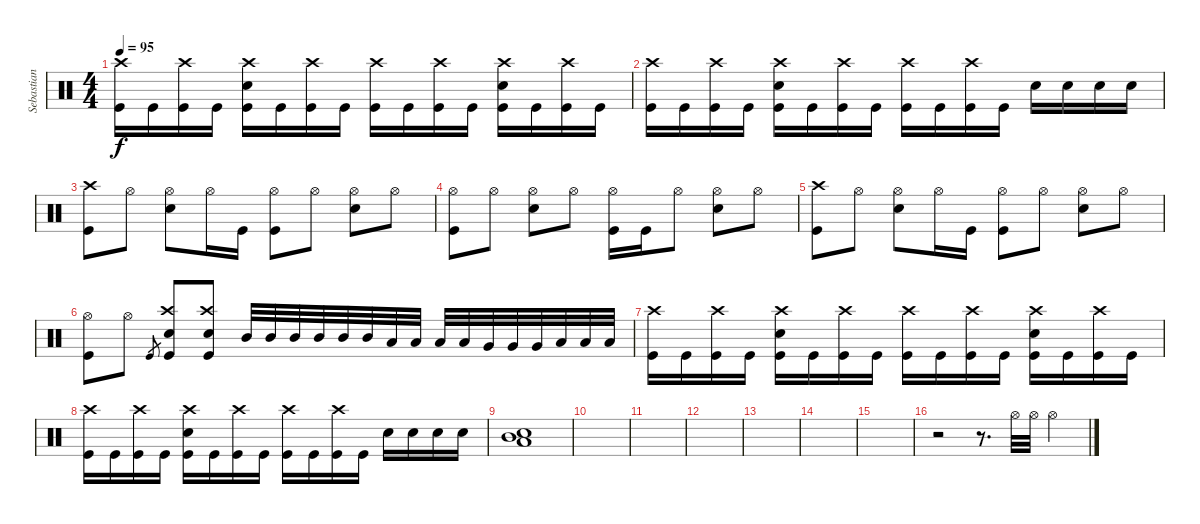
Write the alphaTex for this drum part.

\track ("Sebastian" "Sebastian") {instrument percussion}
\staff {score}
\articulation defaults
\ts (4 4)
\tempo 95
\clef neutral
\ks c
("Kick (hit)" "Crash high (hit)").16{dy f} "Kick (hit)".16 ("Kick (hit)" "Crash high (hit)").16 "Kick (hit)".16 ("Kick (hit)" "Snare (hit) 2" "Crash high (hit)").16 "Kick (hit)".16 ("Kick (hit)" "Crash high (hit)").16 "Kick (hit)".16 ("Kick (hit)" "Crash high (hit)").16 "Kick (hit)".16 ("Kick (hit)" "Crash high (hit)").16 "Kick (hit)".16 ("Kick (hit)" "Snare (hit) 2" "Crash high (hit)").16 "Kick (hit)".16 ("Kick (hit)" "Crash high (hit)").16 "Kick (hit)".16 |
("Kick (hit)" "Crash high (hit)").16 "Kick (hit)".16 ("Kick (hit)" "Crash high (hit)").16 "Kick (hit)".16 ("Kick (hit)" "Snare (hit) 2" "Crash high (hit)").16 "Kick (hit)".16 ("Kick (hit)" "Crash high (hit)").16 "Kick (hit)".16 ("Kick (hit)" "Crash high (hit)").16 "Kick (hit)".16 ("Kick (hit)" "Crash high (hit)").16 "Kick (hit)".16 "Snare (hit) 2".16 "Snare (hit) 2".16 "Snare (hit) 2".16 "Snare (hit) 2".16 |
("Kick (hit)" "Crash high (hit)").8 "Hi-Hat (open)".8 ("Snare (hit) 2" "Hi-Hat (open)").8 "Hi-Hat (open)".16 "Kick (hit)".16 ("Kick (hit)" "Hi-Hat (open)").8 "Hi-Hat (open)".8 ("Snare (hit) 2" "Hi-Hat (open)").8 "Hi-Hat (open)".8 |
("Kick (hit)" "Hi-Hat (open)").8 "Hi-Hat (open)".8 ("Snare (hit) 2" "Hi-Hat (open)").8 "Hi-Hat (open)".8 ("Kick (hit)" "Hi-Hat (open)").16 "Kick (hit)".16 "Hi-Hat (open)".8 ("Snare (hit) 2" "Hi-Hat (open)").8 "Hi-Hat (open)".8 |
("Kick (hit)" "Crash high (hit)").8 "Hi-Hat (open)".8 ("Snare (hit) 2" "Hi-Hat (open)").8 "Hi-Hat (open)".16 "Kick (hit)".16 ("Kick (hit)" "Hi-Hat (open)").8 "Hi-Hat (open)".8 ("Snare (hit) 2" "Hi-Hat (open)").8 "Hi-Hat (open)".8 |
("Kick (hit)" "Hi-Hat (open)").8 "Hi-Hat (open)".8 "Kick (hit)".8{gr} ("Kick (hit)" "Snare (hit) 2" "Crash high (hit)").8 ("Kick (hit)" "Snare (hit) 2" "Crash high (hit)").8 "Mid Tom (hit)".32 "Mid Tom (hit)".32 "Mid Tom (hit)".32 "Mid Tom (hit)".32 "Mid Tom (hit)".32 "Mid Tom (hit)".32 "Low Tom (hit)".32 "Low Tom (hit)".32 "Low Tom (hit)".32 "Low Tom (hit)".32 "Very Low Tom (hit)".32 "Very Low Tom (hit)".32 "Very Low Tom (hit)".32 "Low Floor Tom (hit)".32 "Low Floor Tom (hit)".32 "Low Floor Tom (hit)".32 |
("Kick (hit)" "Crash high (hit)").16 "Kick (hit)".16 ("Kick (hit)" "Crash high (hit)").16 "Kick (hit)".16 ("Kick (hit)" "Snare (hit) 2" "Crash high (hit)").16 "Kick (hit)".16 ("Kick (hit)" "Crash high (hit)").16 "Kick (hit)".16 ("Kick (hit)" "Crash high (hit)").16 "Kick (hit)".16 ("Kick (hit)" "Crash high (hit)").16 "Kick (hit)".16 ("Kick (hit)" "Snare (hit) 2" "Crash high (hit)").16 "Kick (hit)".16 ("Kick (hit)" "Crash high (hit)").16 "Kick (hit)".16 |
("Kick (hit)" "Crash high (hit)").16 "Kick (hit)".16 ("Kick (hit)" "Crash high (hit)").16 "Kick (hit)".16 ("Kick (hit)" "Snare (hit) 2" "Crash high (hit)").16 "Kick (hit)".16 ("Kick (hit)" "Crash high (hit)").16 "Kick (hit)".16 ("Kick (hit)" "Crash high (hit)").16 "Kick (hit)".16 ("Kick (hit)" "Crash high (hit)").16 "Kick (hit)".16 "Snare (hit) 2".16 "Snare (hit) 2".16 "Snare (hit) 2".16 "Snare (hit) 2".16 |
("Snare (hit) 2" "Mid Tom (hit)" "Low Tom (hit)").1 |
|
|
|
|
|
|
r.2 r.8{d} "Hi-Hat (open)".32 "Hi-Hat (open)".32 "Hi-Hat (open)".4
